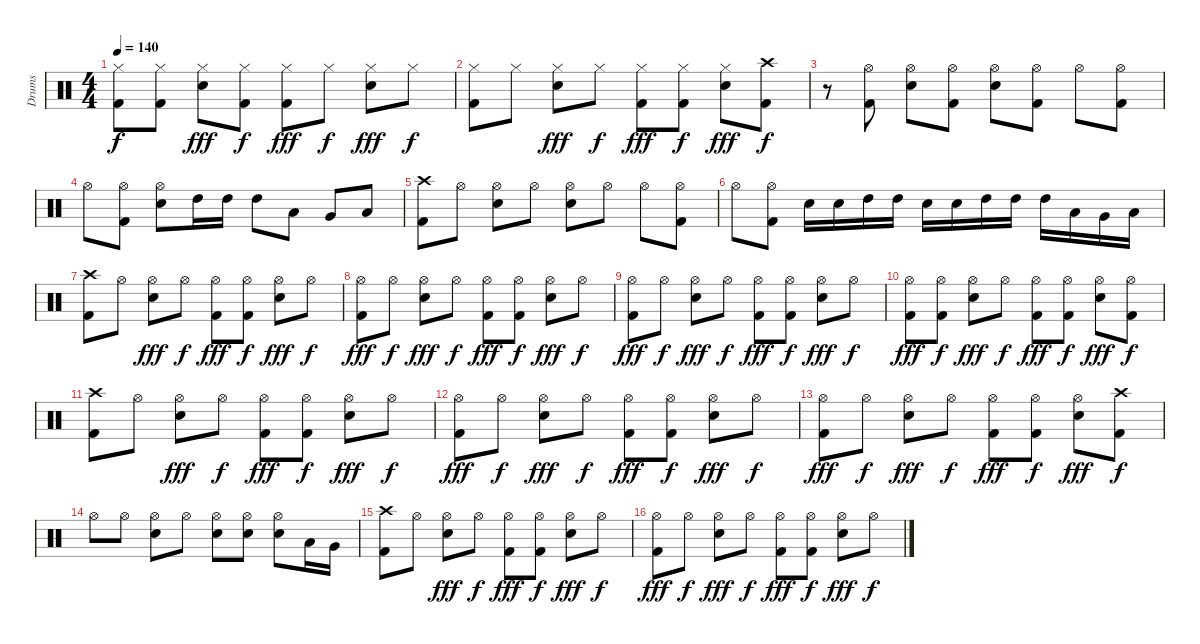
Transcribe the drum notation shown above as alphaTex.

\track ("Drums" "Drums") {instrument percussion}
\staff {score}
\articulation defaults
\ts (4 4)
\tempo 140
\clef neutral
\ks c
("Hi-Hat (closed)" "Kick (hit) 2").8{dy f} ("Hi-Hat (closed)" "Kick (hit) 2").8 ("Hi-Hat (closed)" "Snare (hit) 2").8{dy fff} ("Hi-Hat (closed)" "Kick (hit) 2").8{dy f} ("Hi-Hat (closed)" "Kick (hit) 2").8{dy fff} "Hi-Hat (closed)".8{dy f} ("Hi-Hat (closed)" "Snare (hit) 2").8{dy fff} "Hi-Hat (closed)".8{dy f} |
("Hi-Hat (closed)" "Kick (hit) 2").8 "Hi-Hat (closed)".8 ("Hi-Hat (closed)" "Snare (hit) 2").8{dy fff} "Hi-Hat (closed)".8{dy f} ("Hi-Hat (closed)" "Kick (hit) 2").8{dy fff} ("Hi-Hat (closed)" "Kick (hit) 2").8{dy f} ("Hi-Hat (closed)" "Snare (hit) 2").8{dy fff} ("Crash high (hit)" "Kick (hit) 2").8{dy f} |
r.8 ("Hi-Hat (open)" "Kick (hit) 2").8 ("Hi-Hat (open)" "Snare (hit) 2").8 ("Hi-Hat (open)" "Kick (hit) 2").8 ("Hi-Hat (open)" "Snare (hit) 2").8 ("Hi-Hat (open)" "Kick (hit) 2").8 "Hi-Hat (open)".8 ("Hi-Hat (open)" "Kick (hit) 2").8 |
"Hi-Hat (open)".8 ("Hi-Hat (open)" "Kick (hit) 2").8 ("Hi-Hat (open)" "Snare (hit) 2").8 "High Tom (hit)".16 "High Tom (hit)".16 "High Tom (hit)".8 "Low Tom (hit)".8 "Very Low Tom (hit)".8 "Low Floor Tom (hit)".8 |
("Crash high (hit)" "Kick (hit) 2").8 "Hi-Hat (open)".8 ("Hi-Hat (open)" "Snare (hit) 2").8 "Hi-Hat (open)".8 ("Hi-Hat (open)" "Snare (hit) 2").8 "Hi-Hat (open)".8 "Hi-Hat (open)".8 ("Hi-Hat (open)" "Kick (hit) 2").8 |
"Hi-Hat (open)".8 ("Hi-Hat (open)" "Kick (hit) 2").8 "Snare (hit) 2".16 "Snare (hit) 2".16 "High Tom (hit)".16 "High Tom (hit)".16 "Snare (hit) 2".16 "Snare (hit) 2".16 "High Tom (hit)".16 "High Tom (hit)".16 "High Tom (hit)".16 "Low Tom (hit)".16 "Very Low Tom (hit)".16 "Low Floor Tom (hit)".16 |
("Crash high (hit)" "Kick (hit) 2").8 "Hi-Hat (open)".8 ("Hi-Hat (open)" "Snare (hit) 2").8{dy fff} "Hi-Hat (open)".8{dy f} ("Hi-Hat (open)" "Kick (hit) 2").8{dy fff} ("Hi-Hat (open)" "Kick (hit) 2").8{dy f} ("Hi-Hat (open)" "Snare (hit) 2").8{dy fff} "Hi-Hat (open)".8{dy f} |
("Hi-Hat (open)" "Kick (hit) 2").8{dy fff} "Hi-Hat (open)".8{dy f} ("Hi-Hat (open)" "Snare (hit) 2").8{dy fff} "Hi-Hat (open)".8{dy f} ("Hi-Hat (open)" "Kick (hit) 2").8{dy fff} ("Hi-Hat (open)" "Kick (hit) 2").8{dy f} ("Hi-Hat (open)" "Snare (hit) 2").8{dy fff} "Hi-Hat (open)".8{dy f} |
("Hi-Hat (open)" "Kick (hit) 2").8{dy fff} "Hi-Hat (open)".8{dy f} ("Hi-Hat (open)" "Snare (hit) 2").8{dy fff} "Hi-Hat (open)".8{dy f} ("Hi-Hat (open)" "Kick (hit) 2").8{dy fff} ("Hi-Hat (open)" "Kick (hit) 2").8{dy f} ("Hi-Hat (open)" "Snare (hit) 2").8{dy fff} "Hi-Hat (open)".8{dy f} |
("Hi-Hat (open)" "Kick (hit) 2").8{dy fff} ("Hi-Hat (open)" "Kick (hit) 2").8{dy f} ("Hi-Hat (open)" "Snare (hit) 2").8{dy fff} "Hi-Hat (open)".8{dy f} ("Hi-Hat (open)" "Kick (hit) 2").8{dy fff} ("Hi-Hat (open)" "Kick (hit) 2").8{dy f} ("Hi-Hat (open)" "Snare (hit) 2").8{dy fff} ("Hi-Hat (open)" "Kick (hit) 2").8{dy f} |
("Crash high (hit)" "Kick (hit) 2").8 "Hi-Hat (open)".8 ("Hi-Hat (open)" "Snare (hit) 2").8{dy fff} "Hi-Hat (open)".8{dy f} ("Hi-Hat (open)" "Kick (hit) 2").8{dy fff} ("Hi-Hat (open)" "Kick (hit) 2").8{dy f} ("Hi-Hat (open)" "Snare (hit) 2").8{dy fff} "Hi-Hat (open)".8{dy f} |
("Hi-Hat (open)" "Kick (hit) 2").8{dy fff} "Hi-Hat (open)".8{dy f} ("Hi-Hat (open)" "Snare (hit) 2").8{dy fff} "Hi-Hat (open)".8{dy f} ("Hi-Hat (open)" "Kick (hit) 2").8{dy fff} ("Hi-Hat (open)" "Kick (hit) 2").8{dy f} ("Hi-Hat (open)" "Snare (hit) 2").8{dy fff} "Hi-Hat (open)".8{dy f} |
("Hi-Hat (open)" "Kick (hit) 2").8{dy fff} "Hi-Hat (open)".8{dy f} ("Hi-Hat (open)" "Snare (hit) 2").8{dy fff} "Hi-Hat (open)".8{dy f} ("Hi-Hat (open)" "Kick (hit) 2").8{dy fff} ("Hi-Hat (open)" "Kick (hit) 2").8{dy f} ("Hi-Hat (open)" "Snare (hit) 2").8{dy fff} ("Crash high (hit)" "Kick (hit) 2").8{dy f} |
"Hi-Hat (open)".8 "Hi-Hat (open)".8 ("Hi-Hat (open)" "Snare (hit) 2").8 "Hi-Hat (open)".8 ("Hi-Hat (open)" "Snare (hit) 2").8 ("Hi-Hat (open)" "Snare (hit) 2").8 ("Hi-Hat (open)" "Snare (hit) 2").8 "Low Tom (hit)".16 "Very Low Tom (hit)".16 |
("Crash high (hit)" "Kick (hit) 2").8 "Hi-Hat (open)".8 ("Hi-Hat (open)" "Snare (hit) 2").8{dy fff} "Hi-Hat (open)".8{dy f} ("Hi-Hat (open)" "Kick (hit) 2").8{dy fff} ("Hi-Hat (open)" "Kick (hit) 2").8{dy f} ("Hi-Hat (open)" "Snare (hit) 2").8{dy fff} "Hi-Hat (open)".8{dy f} |
("Hi-Hat (open)" "Kick (hit) 2").8{dy fff} "Hi-Hat (open)".8{dy f} ("Hi-Hat (open)" "Snare (hit) 2").8{dy fff} "Hi-Hat (open)".8{dy f} ("Hi-Hat (open)" "Kick (hit) 2").8{dy fff} ("Hi-Hat (open)" "Kick (hit) 2").8{dy f} ("Hi-Hat (open)" "Snare (hit) 2").8{dy fff} "Hi-Hat (open)".8{dy f}
